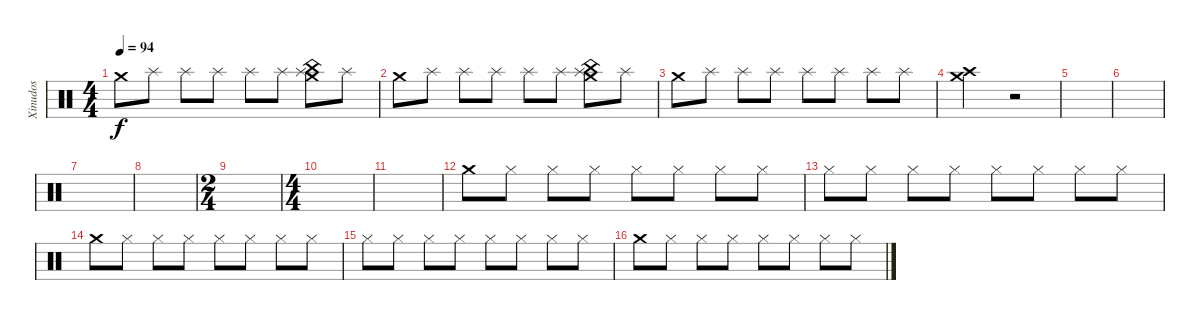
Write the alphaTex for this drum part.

\track ("Xinudos" "Xinudos") {instrument percussion}
\staff {score}
\articulation defaults
\ts (4 4)
\tempo 94
\clef neutral
\ks c "Crash medium (hit)".8{dy f} "Splash (hit)".8 "Splash (hit)".8 "Splash (hit)".8 "Splash (hit)".8 "Splash (hit)".8
("Splash (hit)" "Crash medium (hit)" "China (hit)").8 "Splash (hit)".8 |
"Crash medium (hit)".8 "Splash (hit)".8 "Splash (hit)".8 "Splash (hit)".8 "Splash (hit)".8 "Splash (hit)".8 ("Splash (hit)" "Crash medium (hit)" "China (hit)").8 "Splash (hit)".8 |
"Crash medium (hit)".8 "Splash (hit)".8 "Splash (hit)".8 "Splash (hit)".8 "Splash (hit)".8 "Splash (hit)".8 "Splash (hit)".8 "Splash (hit)".8 |
("Crash medium (hit)" "Crash high (hit)").2 r.2 |
|
|
|
|
\ts (2 4)
|
\ts (4 4)
|
|
"Crash medium (hit)".8 "Hi-Hat (closed)".8 "Hi-Hat (closed)".8 "Hi-Hat (closed)".8 "Hi-Hat (closed)".8 "Hi-Hat (closed)".8 "Hi-Hat (closed)".8 "Hi-Hat (closed)".8 |
"Hi-Hat (closed)".8 "Hi-Hat (closed)".8 "Hi-Hat (closed)".8 "Hi-Hat (closed)".8 "Hi-Hat (closed)".8 "Hi-Hat (closed)".8 "Hi-Hat (closed)".8 "Hi-Hat (closed)".8 |
"Crash medium (hit)".8 "Hi-Hat (closed)".8 "Hi-Hat (closed)".8 "Hi-Hat (closed)".8 "Hi-Hat (closed)".8 "Hi-Hat (closed)".8 "Hi-Hat (closed)".8 "Hi-Hat (closed)".8 |
"Hi-Hat (closed)".8 "Hi-Hat (closed)".8 "Hi-Hat (closed)".8 "Hi-Hat (closed)".8 "Hi-Hat (closed)".8 "Hi-Hat (closed)".8 "Hi-Hat (closed)".8 "Hi-Hat (closed)".8 |
"Crash medium (hit)".8 "Hi-Hat (closed)".8 "Hi-Hat (closed)".8 "Hi-Hat (closed)".8 "Hi-Hat (closed)".8 "Hi-Hat (closed)".8 "Hi-Hat (closed)".8 "Hi-Hat (closed)".8
